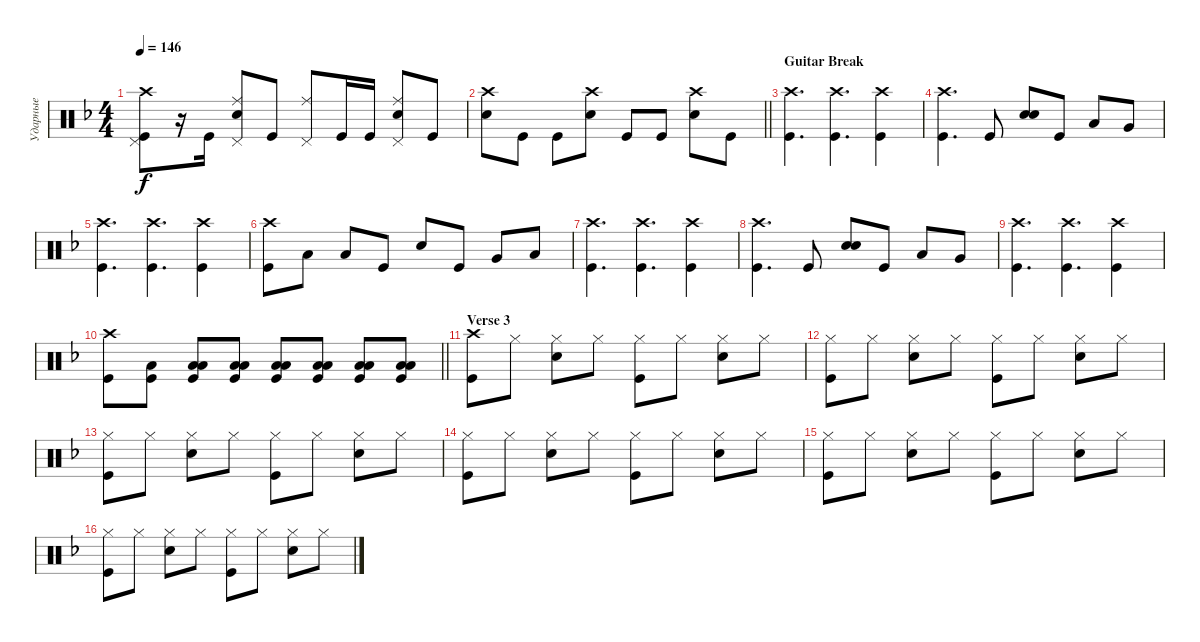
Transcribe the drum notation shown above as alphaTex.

\track ("Ударные" "Ударные") {instrument percussion}
\staff {score}
\articulation defaults
\ts (4 4)
\tempo 146
\clef neutral
\ks dminor
("Kick (hit)" "Pedal Hi-Hat (hit)" "Crash high (hit)").8{dy f} r.16 "Kick (hit)".16 ("Ride (middle)" "Snare (hit) 2" "Pedal Hi-Hat (hit)").8 "Kick (hit)".8 ("Pedal Hi-Hat (hit)" "Ride (middle)").8 "Kick (hit)".16 "Kick (hit)".16 ("Snare (hit) 2" "Pedal Hi-Hat (hit)" "Ride (middle)").8 "Kick (hit)".8 |
\barLineRight lightlight
("Snare (hit) 2" "Crash high (hit)").8 "Kick (hit)".8 "Kick (hit)".8 ("Snare (hit) 2" "Crash high (hit)").8 "Kick (hit)".8 "Kick (hit)".8 ("Snare (hit) 2" "Crash high (hit)").8 "Kick (hit)".8 |
\section ("" "Guitar Break")
("Kick (hit)" "Crash high (hit)").4{d} ("Kick (hit)" "Crash high (hit)").4{d} ("Kick (hit)" "Crash high (hit)").4 |
("Kick (hit)" "Crash high (hit)").4{d} "Kick (hit)".8 ("Snare (hit) 2" "Snare (hit) 2").8{bd 240} "Kick (hit)".8 "Low Tom (hit)".8 "Very Low Tom (hit)".8 |
("Kick (hit)" "Crash high (hit)").4{d} ("Kick (hit)" "Crash high (hit)").4{d} ("Kick (hit)" "Crash high (hit)").4 |
("Kick (hit)" "Crash high (hit)").8 "Low Tom (hit)".8 "Low Tom (hit)".8 "Kick (hit)".8 "Snare (hit) 2".8 "Kick (hit)".8 "Very Low Tom (hit)".8 "Low Floor Tom (hit)".8 |
("Kick (hit)" "Crash high (hit)").4{d} ("Kick (hit)" "Crash high (hit)").4{d} ("Kick (hit)" "Crash high (hit)").4 |
("Kick (hit)" "Crash high (hit)").4{d} "Kick (hit)".8 ("Snare (hit) 2" "Snare (hit) 2").8{bd 240} "Kick (hit)".8 "Low Tom (hit)".8 "Very Low Tom (hit)".8 |
("Kick (hit)" "Crash high (hit)").4{d} ("Kick (hit)" "Crash high (hit)").4{d} ("Kick (hit)" "Crash high (hit)").4 |
\barLineRight lightlight
("Kick (hit)" "Crash high (hit)").8 ("Kick (hit)" "Low Floor Tom (hit)").8 ("Kick (hit)" "Low Floor Tom (hit)" "Low Floor Tom (hit)").8{bd 60} ("Kick (hit)" "Low Floor Tom (hit)" "Low Floor Tom (hit)").8{bd 60} ("Kick (hit)" "Low Floor Tom (hit)" "Low Floor Tom (hit)").8{bd 60} ("Kick (hit)" "Low Floor Tom (hit)" "Low Floor Tom (hit)").8{bd 60} ("Kick (hit)" "Low Floor Tom (hit)" "Low Floor Tom (hit)").8{bd 60} ("Kick (hit)" "Low Floor Tom (hit)" "Low Floor Tom (hit)").8{bd 60} |
\section ("" "Verse 3")
("Kick (hit)" "Crash high (hit)").8 "Hi-Hat (closed)".8 ("Hi-Hat (closed)" "Snare (hit) 2").8 "Hi-Hat (closed)".8 ("Hi-Hat (closed)" "Kick (hit)").8 "Hi-Hat (closed)".8 ("Hi-Hat (closed)" "Snare (hit) 2").8 "Hi-Hat (closed)".8 |
("Kick (hit)" "Hi-Hat (closed)").8 "Hi-Hat (closed)".8 ("Hi-Hat (closed)" "Snare (hit) 2").8 "Hi-Hat (closed)".8 ("Hi-Hat (closed)" "Kick (hit)").8 "Hi-Hat (closed)".8 ("Hi-Hat (closed)" "Snare (hit) 2").8 "Hi-Hat (closed)".8 |
("Kick (hit)" "Hi-Hat (closed)").8 "Hi-Hat (closed)".8 ("Hi-Hat (closed)" "Snare (hit) 2").8 "Hi-Hat (closed)".8 ("Hi-Hat (closed)" "Kick (hit)").8 "Hi-Hat (closed)".8 ("Hi-Hat (closed)" "Snare (hit) 2").8 "Hi-Hat (closed)".8 |
("Kick (hit)" "Hi-Hat (closed)").8 "Hi-Hat (closed)".8 ("Hi-Hat (closed)" "Snare (hit) 2").8 "Hi-Hat (closed)".8 ("Hi-Hat (closed)" "Kick (hit)").8 "Hi-Hat (closed)".8 ("Hi-Hat (closed)" "Snare (hit) 2").8 "Hi-Hat (closed)".8 |
("Kick (hit)" "Hi-Hat (closed)").8 "Hi-Hat (closed)".8 ("Hi-Hat (closed)" "Snare (hit) 2").8 "Hi-Hat (closed)".8 ("Hi-Hat (closed)" "Kick (hit)").8 "Hi-Hat (closed)".8 ("Hi-Hat (closed)" "Snare (hit) 2").8 "Hi-Hat (closed)".8 |
("Kick (hit)" "Hi-Hat (closed)").8 "Hi-Hat (closed)".8 ("Hi-Hat (closed)" "Snare (hit) 2").8 "Hi-Hat (closed)".8 ("Hi-Hat (closed)" "Kick (hit)").8 "Hi-Hat (closed)".8 ("Hi-Hat (closed)" "Snare (hit) 2").8 "Hi-Hat (closed)".8
